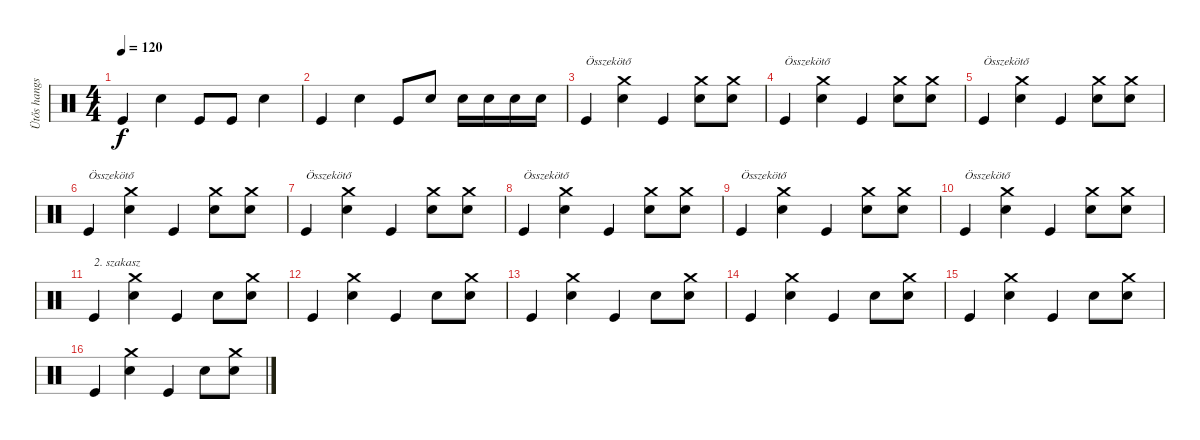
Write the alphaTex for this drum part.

\track ("Ütős hangszer" "Ütős hangs") {instrument percussion}
\staff {score}
\articulation defaults
\ts (4 4)
\tempo 120
\clef neutral
\ks c "Kick (hit)".4{dy f} "Snare (hit) 2".4 "Kick (hit)".8 "Kick (hit)".8 "Snare (hit) 2".4
|
"Kick (hit)".4 "Snare (hit) 2".4 "Kick (hit)".8 "Snare (hit) 2".8 "Snare (hit) 2".16 "Snare (hit) 2".16 "Snare (hit) 2".16 "Snare (hit) 2".16 |
"Kick (hit)".4{txt "Összekötő"} ("Crash medium (hit)" "Snare (hit) 2").4 "Kick (hit)".4 ("Crash medium (hit)" "Snare (hit) 2").8 ("Crash medium (hit)" "Snare (hit) 2").8 |
"Kick (hit)".4{txt "Összekötő"} ("Crash medium (hit)" "Snare (hit) 2").4 "Kick (hit)".4 ("Crash medium (hit)" "Snare (hit) 2").8 ("Crash medium (hit)" "Snare (hit) 2").8 |
"Kick (hit)".4{txt "Összekötő"} ("Crash medium (hit)" "Snare (hit) 2").4 "Kick (hit)".4 ("Crash medium (hit)" "Snare (hit) 2").8 ("Crash medium (hit)" "Snare (hit) 2").8 |
"Kick (hit)".4{txt "Összekötő"} ("Crash medium (hit)" "Snare (hit) 2").4 "Kick (hit)".4 ("Crash medium (hit)" "Snare (hit) 2").8 ("Crash medium (hit)" "Snare (hit) 2").8 |
"Kick (hit)".4{txt "Összekötő"} ("Crash medium (hit)" "Snare (hit) 2").4 "Kick (hit)".4 ("Crash medium (hit)" "Snare (hit) 2").8 ("Crash medium (hit)" "Snare (hit) 2").8 |
"Kick (hit)".4{txt "Összekötő"} ("Crash medium (hit)" "Snare (hit) 2").4 "Kick (hit)".4 ("Crash medium (hit)" "Snare (hit) 2").8 ("Crash medium (hit)" "Snare (hit) 2").8 |
"Kick (hit)".4{txt "Összekötő"} ("Crash medium (hit)" "Snare (hit) 2").4 "Kick (hit)".4 ("Crash medium (hit)" "Snare (hit) 2").8 ("Crash medium (hit)" "Snare (hit) 2").8 |
"Kick (hit)".4{txt "Összekötő"} ("Crash medium (hit)" "Snare (hit) 2").4 "Kick (hit)".4 ("Crash medium (hit)" "Snare (hit) 2").8 ("Crash medium (hit)" "Snare (hit) 2").8 |
"Kick (hit)".4{txt "2. szakasz"} ("Crash medium (hit)" "Snare (hit) 2").4 "Kick (hit)".4 "Snare (hit) 2".8 ("Crash medium (hit)" "Snare (hit) 2").8 |
"Kick (hit)".4 ("Crash medium (hit)" "Snare (hit) 2").4 "Kick (hit)".4 "Snare (hit) 2".8 ("Crash medium (hit)" "Snare (hit) 2").8 |
"Kick (hit)".4 ("Crash medium (hit)" "Snare (hit) 2").4 "Kick (hit)".4 "Snare (hit) 2".8 ("Crash medium (hit)" "Snare (hit) 2").8 |
"Kick (hit)".4 ("Crash medium (hit)" "Snare (hit) 2").4 "Kick (hit)".4 "Snare (hit) 2".8 ("Crash medium (hit)" "Snare (hit) 2").8 |
"Kick (hit)".4 ("Crash medium (hit)" "Snare (hit) 2").4 "Kick (hit)".4 "Snare (hit) 2".8 ("Crash medium (hit)" "Snare (hit) 2").8 |
"Kick (hit)".4 ("Crash medium (hit)" "Snare (hit) 2").4 "Kick (hit)".4 "Snare (hit) 2".8 ("Crash medium (hit)" "Snare (hit) 2").8
